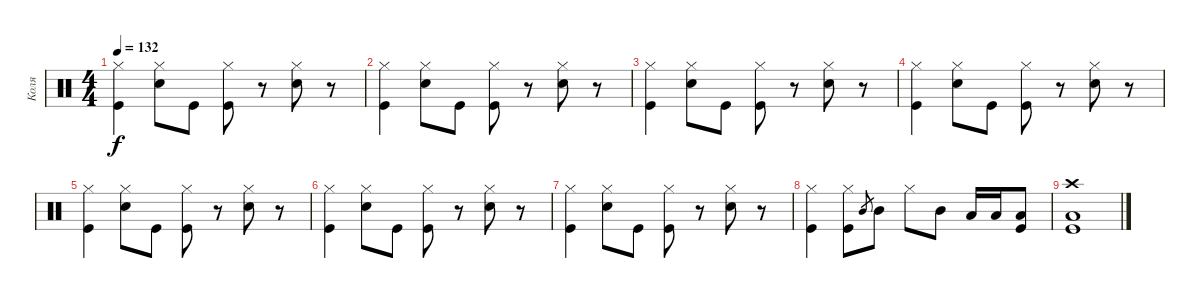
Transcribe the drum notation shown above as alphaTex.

\track ("Коля" "Коля") {instrument percussion}
\staff {score}
\articulation defaults
\ts (4 4)
\tempo 132
\clef neutral
\ks c
("Hi-Hat (closed)" "Kick (hit)").4{dy f} ("Hi-Hat (closed)" "Snare (hit) 2").8 "Kick (hit)".8 ("Hi-Hat (closed)" "Kick (hit)").8 r.8 ("Hi-Hat (closed)" "Snare (hit) 2").8 r.8 |
("Hi-Hat (closed)" "Kick (hit)").4 ("Hi-Hat (closed)" "Snare (hit) 2").8 "Kick (hit)".8 ("Hi-Hat (closed)" "Kick (hit)").8 r.8 ("Hi-Hat (closed)" "Snare (hit) 2").8 r.8 |
("Hi-Hat (closed)" "Kick (hit)").4 ("Hi-Hat (closed)" "Snare (hit) 2").8 "Kick (hit)".8 ("Hi-Hat (closed)" "Kick (hit)").8 r.8 ("Hi-Hat (closed)" "Snare (hit) 2").8 r.8 |
("Hi-Hat (closed)" "Kick (hit)").4 ("Hi-Hat (closed)" "Snare (hit) 2").8 "Kick (hit)".8 ("Hi-Hat (closed)" "Kick (hit)").8 r.8 ("Hi-Hat (closed)" "Snare (hit) 2").8 r.8 |
("Hi-Hat (closed)" "Kick (hit)").4 ("Hi-Hat (closed)" "Snare (hit) 2").8 "Kick (hit)".8 ("Hi-Hat (closed)" "Kick (hit)").8 r.8 ("Hi-Hat (closed)" "Snare (hit) 2").8 r.8 |
("Hi-Hat (closed)" "Kick (hit)").4 ("Hi-Hat (closed)" "Snare (hit) 2").8 "Kick (hit)".8 ("Hi-Hat (closed)" "Kick (hit)").8 r.8 ("Hi-Hat (closed)" "Snare (hit) 2").8 r.8 |
("Hi-Hat (closed)" "Kick (hit)").4 ("Hi-Hat (closed)" "Snare (hit) 2").8 "Kick (hit)".8 ("Hi-Hat (closed)" "Kick (hit)").8 r.8 ("Hi-Hat (closed)" "Snare (hit) 2").8 r.8 |
("Hi-Hat (closed)" "Kick (hit)").4 ("Hi-Hat (closed)" "Kick (hit)").8 "Mid Tom (hit)".8{gr} "Mid Tom (hit)".8 "Hi-Hat (closed)".8 "Mid Tom (hit)".8 "Low Tom (hit)".16 "Low Tom (hit)".16 ("Low Tom (hit)" "Kick (hit)").8 |
("Crash high (hit)" "Low Tom (hit)" "Kick (hit)").1
